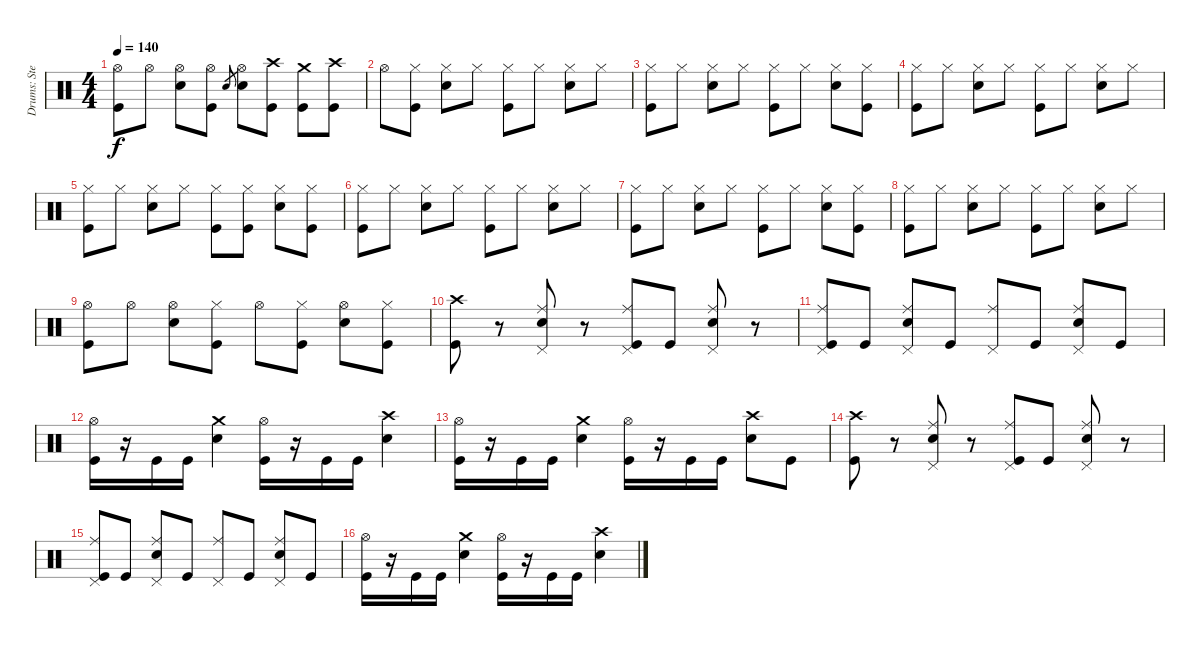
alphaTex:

\track ("Drums: Steven Adler" "Drums: Ste") {instrument percussion}
\staff {score}
\articulation defaults
\ts (4 4)
\tempo 140
\clef neutral
\ks c
("Hi-Hat (open)" "Kick (hit)").8{dy f} "Hi-Hat (open)".8 ("Hi-Hat (open)" "Electric Snare (hit)").8 ("Hi-Hat (open)" "Kick (hit)").8 "Electric Snare (hit)".8{gr} ("Hi-Hat (open)" "Electric Snare (hit)").8 ("Crash high (hit)" "Kick (hit)").8 ("Crash medium (hit)" "Kick (hit)").8 ("Crash high (hit)" "Kick (hit)").8 |
"Hi-Hat (open)".8 ("Hi-Hat (closed)" "Kick (hit)").8 ("Hi-Hat (closed)" "Electric Snare (hit)").8 "Hi-Hat (closed)".8 ("Hi-Hat (closed)" "Kick (hit)").8 "Hi-Hat (closed)".8 ("Hi-Hat (closed)" "Electric Snare (hit)").8 "Hi-Hat (closed)".8 |
("Hi-Hat (closed)" "Kick (hit)").8 "Hi-Hat (closed)".8 ("Hi-Hat (closed)" "Electric Snare (hit)").8 "Hi-Hat (closed)".8 ("Hi-Hat (closed)" "Kick (hit)").8 "Hi-Hat (closed)".8 ("Hi-Hat (closed)" "Electric Snare (hit)").8 ("Hi-Hat (closed)" "Kick (hit)").8 |
("Hi-Hat (closed)" "Kick (hit)").8 "Hi-Hat (closed)".8 ("Hi-Hat (closed)" "Electric Snare (hit)").8 "Hi-Hat (closed)".8 ("Hi-Hat (closed)" "Kick (hit)").8 "Hi-Hat (closed)".8 ("Hi-Hat (closed)" "Electric Snare (hit)").8 "Hi-Hat (closed)".8 |
("Hi-Hat (closed)" "Kick (hit)").8 "Hi-Hat (closed)".8 ("Hi-Hat (closed)" "Electric Snare (hit)").8 "Hi-Hat (closed)".8 ("Hi-Hat (closed)" "Kick (hit)").8 ("Hi-Hat (closed)" "Kick (hit)").8 ("Hi-Hat (closed)" "Electric Snare (hit)").8 ("Hi-Hat (closed)" "Kick (hit)").8 |
("Hi-Hat (closed)" "Kick (hit)").8 "Hi-Hat (closed)".8 ("Hi-Hat (closed)" "Electric Snare (hit)").8 "Hi-Hat (closed)".8 ("Hi-Hat (closed)" "Kick (hit)").8 "Hi-Hat (closed)".8 ("Hi-Hat (closed)" "Electric Snare (hit)").8 "Hi-Hat (closed)".8 |
("Hi-Hat (closed)" "Kick (hit)").8 "Hi-Hat (closed)".8 ("Hi-Hat (closed)" "Electric Snare (hit)").8 "Hi-Hat (closed)".8 ("Hi-Hat (closed)" "Kick (hit)").8 "Hi-Hat (closed)".8 ("Hi-Hat (closed)" "Electric Snare (hit)").8 ("Hi-Hat (closed)" "Kick (hit)").8 |
("Hi-Hat (closed)" "Kick (hit)").8 "Hi-Hat (closed)".8 ("Hi-Hat (closed)" "Electric Snare (hit)").8 "Hi-Hat (closed)".8 ("Hi-Hat (closed)" "Kick (hit)").8 "Hi-Hat (closed)".8 ("Hi-Hat (closed)" "Electric Snare (hit)").8 "Hi-Hat (closed)".8 |
("Hi-Hat (open)" "Kick (hit)").8 "Hi-Hat (open)".8 ("Hi-Hat (open)" "Electric Snare (hit)").8 ("Hi-Hat (closed)" "Kick (hit)").8 "Hi-Hat (open)".8 ("Hi-Hat (closed)" "Kick (hit)").8 ("Hi-Hat (open)" "Electric Snare (hit)").8 ("Hi-Hat (closed)" "Kick (hit)").8 |
("Crash high (hit)" "Kick (hit)").8 r.8 ("Ride (middle)" "Pedal Hi-Hat (hit)" "Electric Snare (hit)").8 r.8 ("Ride (middle)" "Pedal Hi-Hat (hit)" "Kick (hit)").8 "Kick (hit)".8 ("Ride (middle)" "Pedal Hi-Hat (hit)" "Electric Snare (hit)").8 r.8 |
("Ride (middle)" "Pedal Hi-Hat (hit)" "Kick (hit)").8 "Kick (hit)".8 ("Ride (middle)" "Pedal Hi-Hat (hit)" "Electric Snare (hit)").8 "Kick (hit)".8 ("Ride (middle)" "Pedal Hi-Hat (hit)").8 "Kick (hit)".8 ("Ride (middle)" "Pedal Hi-Hat (hit)" "Electric Snare (hit)").8 "Kick (hit)".8 |
("Hi-Hat (open)" "Kick (hit)").16 r.16 "Kick (hit)".16 "Kick (hit)".16 ("Crash medium (hit)" "Electric Snare (hit)").4 ("Hi-Hat (open)" "Kick (hit)").16 r.16 "Kick (hit)".16 "Kick (hit)".16 ("Crash high (hit)" "Electric Snare (hit)").4 |
("Hi-Hat (open)" "Kick (hit)").16 r.16 "Kick (hit)".16 "Kick (hit)".16 ("Crash medium (hit)" "Electric Snare (hit)").4 ("Hi-Hat (open)" "Kick (hit)").16 r.16 "Kick (hit)".16 "Kick (hit)".16 ("Crash high (hit)" "Electric Snare (hit)").8 "Kick (hit)".8 |
("Crash high (hit)" "Kick (hit)").8 r.8 ("Ride (middle)" "Pedal Hi-Hat (hit)" "Electric Snare (hit)").8 r.8 ("Ride (middle)" "Pedal Hi-Hat (hit)" "Kick (hit)").8 "Kick (hit)".8 ("Ride (middle)" "Pedal Hi-Hat (hit)" "Electric Snare (hit)").8 r.8 |
("Ride (middle)" "Pedal Hi-Hat (hit)" "Kick (hit)").8 "Kick (hit)".8 ("Ride (middle)" "Pedal Hi-Hat (hit)" "Electric Snare (hit)").8 "Kick (hit)".8 ("Ride (middle)" "Pedal Hi-Hat (hit)").8 "Kick (hit)".8 ("Ride (middle)" "Pedal Hi-Hat (hit)" "Electric Snare (hit)").8 "Kick (hit)".8 |
("Hi-Hat (open)" "Kick (hit)").16 r.16 "Kick (hit)".16 "Kick (hit)".16 ("Crash medium (hit)" "Electric Snare (hit)").4 ("Hi-Hat (open)" "Kick (hit)").16 r.16 "Kick (hit)".16 "Kick (hit)".16 ("Crash high (hit)" "Electric Snare (hit)").4
